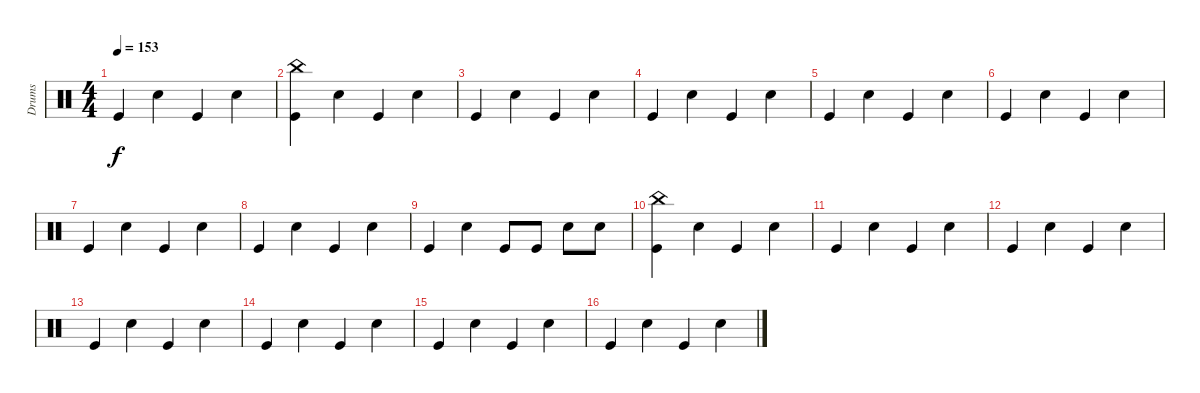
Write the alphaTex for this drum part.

\track ("Drums" "Drums") {instrument percussion}
\staff {score}
\articulation defaults
\ts (4 4)
\tempo 153
\clef neutral
\ks c "Kick (hit)".4{dy f} "Snare (hit) 2".4 "Kick (hit)".4 "Snare (hit) 2".4
|
("China (hit)" "Kick (hit)").4 "Snare (hit) 2".4 "Kick (hit)".4 "Snare (hit) 2".4 |
"Kick (hit)".4 "Snare (hit) 2".4 "Kick (hit)".4 "Snare (hit) 2".4 |
"Kick (hit)".4 "Snare (hit) 2".4 "Kick (hit)".4 "Snare (hit) 2".4 |
"Kick (hit)".4 "Snare (hit) 2".4 "Kick (hit)".4 "Snare (hit) 2".4 |
"Kick (hit)".4 "Snare (hit) 2".4 "Kick (hit)".4 "Snare (hit) 2".4 |
"Kick (hit)".4 "Snare (hit) 2".4 "Kick (hit)".4 "Snare (hit) 2".4 |
"Kick (hit)".4 "Snare (hit) 2".4 "Kick (hit)".4 "Snare (hit) 2".4 |
"Kick (hit)".4 "Snare (hit) 2".4 "Kick (hit)".8 "Kick (hit)".8 "Snare (hit) 2".8 "Snare (hit) 2".8 |
("China (hit)" "Kick (hit)").4 "Snare (hit) 2".4 "Kick (hit)".4 "Snare (hit) 2".4 |
"Kick (hit)".4 "Snare (hit) 2".4 "Kick (hit)".4 "Snare (hit) 2".4 |
"Kick (hit)".4 "Snare (hit) 2".4 "Kick (hit)".4 "Snare (hit) 2".4 |
"Kick (hit)".4 "Snare (hit) 2".4 "Kick (hit)".4 "Snare (hit) 2".4 |
"Kick (hit)".4 "Snare (hit) 2".4 "Kick (hit)".4 "Snare (hit) 2".4 |
"Kick (hit)".4 "Snare (hit) 2".4 "Kick (hit)".4 "Snare (hit) 2".4 |
"Kick (hit)".4 "Snare (hit) 2".4 "Kick (hit)".4 "Snare (hit) 2".4
